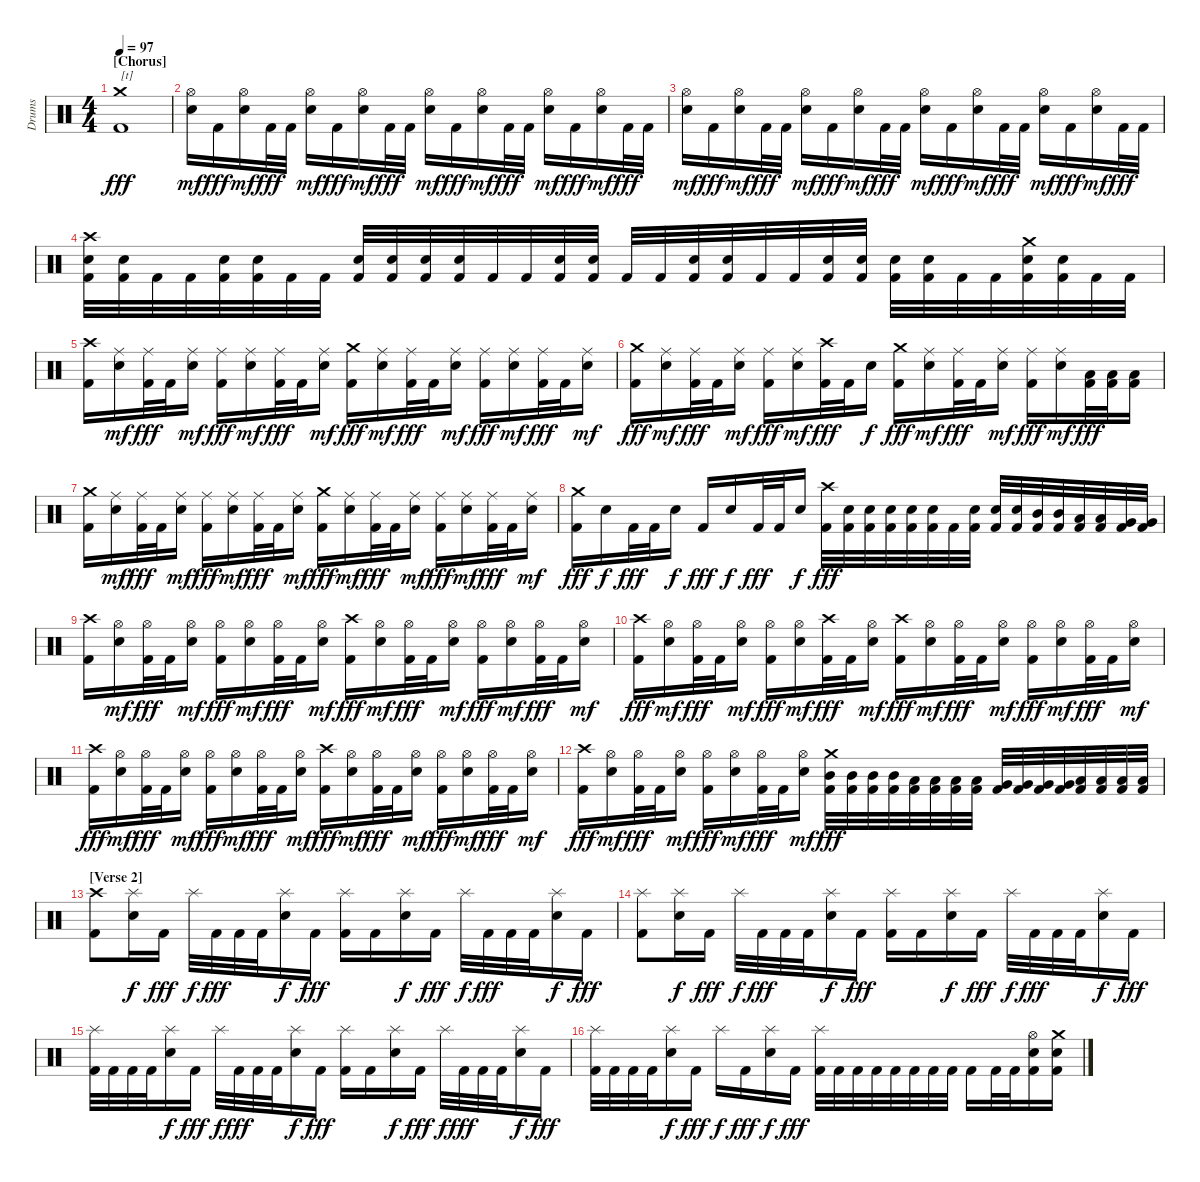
\track ("Drums" "Drums") {instrument percussion}
\staff {score}
\articulation defaults
\ts (4 4)
\section ("" "[Chorus]")
\tempo 97
\clef neutral
\ks c
("Crash medium (hit)" "Kick (hit) 2").1{txt "[t]" dy fff} |
("Hi-Hat (open)" "Snare (hit) 2").16{dy mf} "Kick (hit) 2".16{dy fff} ("Hi-Hat (open)" "Snare (hit) 2").16{dy mf} "Kick (hit) 2".32{dy fff} "Kick (hit) 2".32 ("Hi-Hat (open)" "Snare (hit) 2").16{dy mf} "Kick (hit) 2".16{dy fff} ("Hi-Hat (open)" "Snare (hit) 2").16{dy mf} "Kick (hit) 2".32{dy fff} "Kick (hit) 2".32 ("Hi-Hat (open)" "Snare (hit) 2").16{dy mf} "Kick (hit) 2".16{dy fff} ("Hi-Hat (open)" "Snare (hit) 2").16{dy mf} "Kick (hit) 2".32{dy fff} "Kick (hit) 2".32 ("Hi-Hat (open)" "Snare (hit) 2").16{dy mf} "Kick (hit) 2".16{dy fff} ("Hi-Hat (open)" "Snare (hit) 2").16{dy mf} "Kick (hit) 2".32{dy fff} "Kick (hit) 2".32 |
("Hi-Hat (open)" "Snare (hit) 2").16{dy mf} "Kick (hit) 2".16{dy fff} ("Hi-Hat (open)" "Snare (hit) 2").16{dy mf} "Kick (hit) 2".32{dy fff} "Kick (hit) 2".32 ("Hi-Hat (open)" "Snare (hit) 2").16{dy mf} "Kick (hit) 2".16{dy fff} ("Hi-Hat (open)" "Snare (hit) 2").16{dy mf} "Kick (hit) 2".32{dy fff} "Kick (hit) 2".32 ("Hi-Hat (open)" "Snare (hit) 2").16{dy mf} "Kick (hit) 2".16{dy fff} ("Hi-Hat (open)" "Snare (hit) 2").16{dy mf} "Kick (hit) 2".32{dy fff} "Kick (hit) 2".32 ("Hi-Hat (open)" "Snare (hit) 2").16{dy mf} "Kick (hit) 2".16{dy fff} ("Hi-Hat (open)" "Snare (hit) 2").16{dy mf} "Kick (hit) 2".32{dy fff} "Kick (hit) 2".32 |
("Crash high (hit)" "Snare (hit) 2" "Kick (hit) 2").32 ("Snare (hit) 2" "Kick (hit) 2").32 "Kick (hit) 2".32 "Kick (hit) 2".32 ("Snare (hit) 2" "Kick (hit) 2").32 ("Snare (hit) 2" "Kick (hit) 2").32 "Kick (hit) 2".32 "Kick (hit) 2".32 ("Snare (hit) 2" "Kick (hit) 2").32 ("Snare (hit) 2" "Kick (hit) 2").32 ("Snare (hit) 2" "Kick (hit) 2").32 ("Snare (hit) 2" "Kick (hit) 2").32 "Kick (hit) 2".32 "Kick (hit) 2".32 ("Snare (hit) 2" "Kick (hit) 2").32 ("Snare (hit) 2" "Kick (hit) 2").32 "Kick (hit) 2".32 "Kick (hit) 2".32 ("Snare (hit) 2" "Kick (hit) 2").32 ("Snare (hit) 2" "Kick (hit) 2").32 "Kick (hit) 2".32 "Kick (hit) 2".32 ("Snare (hit) 2" "Kick (hit) 2").32 ("Snare (hit) 2" "Kick (hit) 2").32 ("Snare (hit) 2" "Kick (hit) 2").32 ("Snare (hit) 2" "Kick (hit) 2").32 "Kick (hit) 2".32 "Kick (hit) 2".32 ("Crash medium (hit)" "Snare (hit) 2" "Kick (hit) 2").32 ("Snare (hit) 2" "Kick (hit) 2").32 "Kick (hit) 2".32 "Kick (hit) 2".32 |
("Crash high (hit)" "Kick (hit) 2").16 ("Ride (middle)" "Snare (hit) 2").16{dy mf} ("Ride (middle)" "Kick (hit) 2").32{dy fff} "Kick (hit) 2".32 ("Ride (middle)" "Snare (hit) 2").16{dy mf} ("Ride (middle)" "Kick (hit) 2").16{dy fff} ("Ride (middle)" "Snare (hit) 2").16{dy mf} ("Ride (middle)" "Kick (hit) 2").32{dy fff} "Kick (hit) 2".32 ("Ride (middle)" "Snare (hit) 2").16{dy mf} ("Crash medium (hit)" "Kick (hit) 2").16{dy fff} ("Ride (middle)" "Snare (hit) 2").16{dy mf} ("Ride (middle)" "Kick (hit) 2").32{dy fff} "Kick (hit) 2".32 ("Ride (middle)" "Snare (hit) 2").16{dy mf} ("Ride (middle)" "Kick (hit) 2").16{dy fff} ("Ride (middle)" "Snare (hit) 2").16{dy mf} ("Ride (middle)" "Kick (hit) 2").32{dy fff} "Kick (hit) 2".32 ("Ride (middle)" "Snare (hit) 2").16{dy mf} |
("Crash medium (hit)" "Kick (hit) 2").16{dy fff} ("Ride (middle)" "Snare (hit) 2").16{dy mf} ("Ride (middle)" "Kick (hit) 2").32{dy fff} "Kick (hit) 2".32 ("Ride (middle)" "Snare (hit) 2").16{dy mf} ("Ride (middle)" "Kick (hit) 2").16{dy fff} ("Ride (middle)" "Snare (hit) 2").16{dy mf} ("Crash high (hit)" "Kick (hit) 2").32{dy fff} "Kick (hit) 2".32 "Snare (hit) 2".16{dy f} ("Crash medium (hit)" "Kick (hit) 2").16{dy fff} ("Ride (middle)" "Snare (hit) 2").16{dy mf} ("Ride (middle)" "Kick (hit) 2").32{dy fff} "Kick (hit) 2".32 ("Ride (middle)" "Snare (hit) 2").16{dy mf} ("Ride (middle)" "Kick (hit) 2").16{dy fff} ("Ride (middle)" "Snare (hit) 2").16{dy mf} ("Low Tom (hit)" "Kick (hit) 2").32{dy fff} ("Low Tom (hit)" "Kick (hit) 2").32 ("Low Tom (hit)" "Kick (hit) 2").16 |
("Crash medium (hit)" "Kick (hit) 2").16 ("Ride (middle)" "Snare (hit) 2").16{dy mf} ("Ride (middle)" "Kick (hit) 2").32{dy fff} "Kick (hit) 2".32 ("Ride (middle)" "Snare (hit) 2").16{dy mf} ("Ride (middle)" "Kick (hit) 2").16{dy fff} ("Ride (middle)" "Snare (hit) 2").16{dy mf} ("Ride (middle)" "Kick (hit) 2").32{dy fff} "Kick (hit) 2".32 ("Ride (middle)" "Snare (hit) 2").16{dy mf} ("Crash medium (hit)" "Kick (hit) 2").16{dy fff} ("Ride (middle)" "Snare (hit) 2").16{dy mf} ("Ride (middle)" "Kick (hit) 2").32{dy fff} "Kick (hit) 2".32 ("Ride (middle)" "Snare (hit) 2").16{dy mf} ("Ride (middle)" "Kick (hit) 2").16{dy fff} ("Ride (middle)" "Snare (hit) 2").16{dy mf} ("Ride (middle)" "Kick (hit) 2").32{dy fff} "Kick (hit) 2".32 ("Ride (middle)" "Snare (hit) 2").16{dy mf} |
("Crash medium (hit)" "Kick (hit) 2").16{dy fff} "Snare (hit) 2".16{dy f} "Kick (hit) 2".32{dy fff} "Kick (hit) 2".32 "Snare (hit) 2".16{dy f} "Kick (hit) 2".16{dy fff} "Snare (hit) 2".16{dy f} "Kick (hit) 2".32{dy fff} "Kick (hit) 2".32 "Snare (hit) 2".16{dy f} ("Crash high (hit)" "Kick (hit) 2").32{dy fff} ("Snare (hit) 2" "Kick (hit) 2").32 ("Snare (hit) 2" "Kick (hit) 2").32 ("Snare (hit) 2" "Kick (hit) 2").32 ("Snare (hit) 2" "Kick (hit) 2").32 ("Snare (hit) 2" "Kick (hit) 2").32 "Kick (hit) 2".32 ("Snare (hit) 2" "Kick (hit) 2").32 ("Snare (hit) 2" "Kick (hit) 2").32 ("Snare (hit) 2" "Kick (hit) 2").32 ("Mid Tom (hit)" "Kick (hit) 2").32 ("Mid Tom (hit)" "Kick (hit) 2").32 ("Low Tom (hit)" "Kick (hit) 2").32 ("Low Tom (hit)" "Kick (hit) 2").32 ("Very Low Tom (hit)" "Kick (hit) 2").32 ("Very Low Tom (hit)" "Kick (hit) 2").32 |
\section ("" "")
("Crash high (hit)" "Kick (hit) 2").16 ("Hi-Hat (open)" "Snare (hit) 2").16{dy mf} ("Hi-Hat (open)" "Kick (hit) 2").32{dy fff} "Kick (hit) 2".32 ("Hi-Hat (open)" "Snare (hit) 2").16{dy mf} ("Hi-Hat (open)" "Kick (hit) 2").16{dy fff} ("Hi-Hat (open)" "Snare (hit) 2").16{dy mf} ("Hi-Hat (open)" "Kick (hit) 2").32{dy fff} "Kick (hit) 2".32 ("Hi-Hat (open)" "Snare (hit) 2").16{dy mf} ("Crash high (hit)" "Kick (hit) 2").16{dy fff} ("Hi-Hat (open)" "Snare (hit) 2").16{dy mf} ("Hi-Hat (open)" "Kick (hit) 2").32{dy fff} "Kick (hit) 2".32 ("Hi-Hat (open)" "Snare (hit) 2").16{dy mf} ("Hi-Hat (open)" "Kick (hit) 2").16{dy fff} ("Hi-Hat (open)" "Snare (hit) 2").16{dy mf} ("Hi-Hat (open)" "Kick (hit) 2").32{dy fff} "Kick (hit) 2".32 ("Hi-Hat (open)" "Snare (hit) 2").16{dy mf} |
("Crash high (hit)" "Kick (hit) 2").16{dy fff} ("Hi-Hat (open)" "Snare (hit) 2").16{dy mf} ("Hi-Hat (open)" "Kick (hit) 2").32{dy fff} "Kick (hit) 2".32 ("Hi-Hat (open)" "Snare (hit) 2").16{dy mf} ("Hi-Hat (open)" "Kick (hit) 2").16{dy fff} ("Hi-Hat (open)" "Snare (hit) 2").16{dy mf} ("Crash high (hit)" "Kick (hit) 2").32{dy fff} "Kick (hit) 2".32 ("Hi-Hat (open)" "Snare (hit) 2").16{dy mf} ("Crash high (hit)" "Kick (hit) 2").16{dy fff} ("Hi-Hat (open)" "Snare (hit) 2").16{dy mf} ("Hi-Hat (open)" "Kick (hit) 2").32{dy fff} "Kick (hit) 2".32 ("Hi-Hat (open)" "Snare (hit) 2").16{dy mf} ("Hi-Hat (open)" "Kick (hit) 2").16{dy fff} ("Hi-Hat (open)" "Snare (hit) 2").16{dy mf} ("Hi-Hat (open)" "Kick (hit) 2").32{dy fff} "Kick (hit) 2".32 ("Hi-Hat (open)" "Snare (hit) 2").16{dy mf} |
("Crash high (hit)" "Kick (hit) 2").16{dy fff} ("Hi-Hat (open)" "Snare (hit) 2").16{dy mf} ("Hi-Hat (open)" "Kick (hit) 2").32{dy fff} "Kick (hit) 2".32 ("Hi-Hat (open)" "Snare (hit) 2").16{dy mf} ("Hi-Hat (open)" "Kick (hit) 2").16{dy fff} ("Hi-Hat (open)" "Snare (hit) 2").16{dy mf} ("Hi-Hat (open)" "Kick (hit) 2").32{dy fff} "Kick (hit) 2".32 ("Hi-Hat (open)" "Snare (hit) 2").16{dy mf} ("Crash high (hit)" "Kick (hit) 2").16{dy fff} ("Hi-Hat (open)" "Snare (hit) 2").16{dy mf} ("Hi-Hat (open)" "Kick (hit) 2").32{dy fff} "Kick (hit) 2".32 ("Hi-Hat (open)" "Snare (hit) 2").16{dy mf} ("Hi-Hat (open)" "Kick (hit) 2").16{dy fff} ("Hi-Hat (open)" "Snare (hit) 2").16{dy mf} ("Hi-Hat (open)" "Kick (hit) 2").32{dy fff} "Kick (hit) 2".32 ("Hi-Hat (open)" "Snare (hit) 2").16{dy mf} |
("Crash high (hit)" "Kick (hit) 2").16{dy fff} ("Hi-Hat (open)" "Snare (hit) 2").16{dy mf} ("Hi-Hat (open)" "Kick (hit) 2").32{dy fff} "Kick (hit) 2".32 ("Hi-Hat (open)" "Snare (hit) 2").16{dy mf} ("Hi-Hat (open)" "Kick (hit) 2").16{dy fff} ("Hi-Hat (open)" "Snare (hit) 2").16{dy mf} ("Hi-Hat (open)" "Kick (hit) 2").32{dy fff} "Kick (hit) 2".32 ("Hi-Hat (open)" "Snare (hit) 2").16{dy mf} ("Crash medium (hit)" "Mid Tom (hit)" "Kick (hit) 2").32{dy fff} ("Mid Tom (hit)" "Kick (hit) 2").32 ("Mid Tom (hit)" "Kick (hit) 2").32 ("Mid Tom (hit)" "Kick (hit) 2").32 ("Low Tom (hit)" "Kick (hit) 2").32 ("Low Tom (hit)" "Kick (hit) 2").32 ("Low Tom (hit)" "Kick (hit) 2").32 ("Low Tom (hit)" "Kick (hit) 2").32 ("Very Low Tom (hit)" "Kick (hit) 2").32 ("Very Low Tom (hit)" "Kick (hit) 2").32 ("Very Low Tom (hit)" "Kick (hit) 2").32 ("Very Low Tom (hit)" "Kick (hit) 2").32 ("Low Floor Tom (hit)" "Kick (hit) 2").32 ("Low Floor Tom (hit)" "Kick (hit) 2").32 ("Low Floor Tom (hit)" "Kick (hit) 2").32 ("Low Floor Tom (hit)" "Kick (hit) 2").32 |
\section ("" "[Verse 2]")
("Crash high (hit)" "Kick (hit) 2").8 ("Splash (hit)" "Snare (hit) 2").16{dy f} "Kick (hit) 2".16{dy fff} "Splash (hit)".32{dy f} "Kick (hit) 2".32{dy fff} "Kick (hit) 2".32 "Kick (hit) 2".32 ("Splash (hit)" "Snare (hit) 2").16{dy f} "Kick (hit) 2".16{dy fff} ("Splash (hit)" "Kick (hit) 2").16 "Kick (hit) 2".16 ("Splash (hit)" "Snare (hit) 2").16{dy f} "Kick (hit) 2".16{dy fff} "Splash (hit)".32{dy f} "Kick (hit) 2".32{dy fff} "Kick (hit) 2".32 "Kick (hit) 2".32 ("Splash (hit)" "Snare (hit) 2").16{dy f} "Kick (hit) 2".16{dy fff} |
("Splash (hit)" "Kick (hit) 2").8 ("Splash (hit)" "Snare (hit) 2").16{dy f} "Kick (hit) 2".16{dy fff} "Splash (hit)".32{dy f} "Kick (hit) 2".32{dy fff} "Kick (hit) 2".32 "Kick (hit) 2".32 ("Splash (hit)" "Snare (hit) 2").16{dy f} "Kick (hit) 2".16{dy fff} ("Splash (hit)" "Kick (hit) 2").16 "Kick (hit) 2".16 ("Splash (hit)" "Snare (hit) 2").16{dy f} "Kick (hit) 2".16{dy fff} "Splash (hit)".32{dy f} "Kick (hit) 2".32{dy fff} "Kick (hit) 2".32 "Kick (hit) 2".32 ("Splash (hit)" "Snare (hit) 2").16{dy f} "Kick (hit) 2".16{dy fff} |
("Splash (hit)" "Kick (hit) 2").32 "Kick (hit) 2".32 "Kick (hit) 2".32 "Kick (hit) 2".32 ("Splash (hit)" "Snare (hit) 2").16{dy f} "Kick (hit) 2".16{dy fff} "Splash (hit)".32{dy f} "Kick (hit) 2".32{dy fff} "Kick (hit) 2".32 "Kick (hit) 2".32 ("Splash (hit)" "Snare (hit) 2").16{dy f} "Kick (hit) 2".16{dy fff} ("Splash (hit)" "Kick (hit) 2").16 "Kick (hit) 2".16 ("Splash (hit)" "Snare (hit) 2").16{dy f} "Kick (hit) 2".16{dy fff} "Splash (hit)".32{dy f} "Kick (hit) 2".32{dy fff} "Kick (hit) 2".32 "Kick (hit) 2".32 ("Splash (hit)" "Snare (hit) 2").16{dy f} "Kick (hit) 2".16{dy fff} |
("Splash (hit)" "Kick (hit) 2").32 "Kick (hit) 2".32 "Kick (hit) 2".32 "Kick (hit) 2".32 ("Splash (hit)" "Snare (hit) 2").16{dy f} "Kick (hit) 2".16{dy fff} "Splash (hit)".16{dy f} "Kick (hit) 2".16{dy fff} ("Splash (hit)" "Snare (hit) 2").16{dy f} "Kick (hit) 2".16{dy fff} ("Splash (hit)" "Kick (hit) 2").32 "Kick (hit) 2".32 "Kick (hit) 2".32 "Kick (hit) 2".32 "Kick (hit) 2".32 "Kick (hit) 2".32 "Kick (hit) 2".32 "Kick (hit) 2".32 "Kick (hit) 2".16 "Kick (hit) 2".32 "Kick (hit) 2".32 ("Hi-Hat (open)" "Snare (hit) 2" "Kick (hit) 2").16 ("Crash medium (hit)" "Snare (hit) 2" "Kick (hit) 2").16
